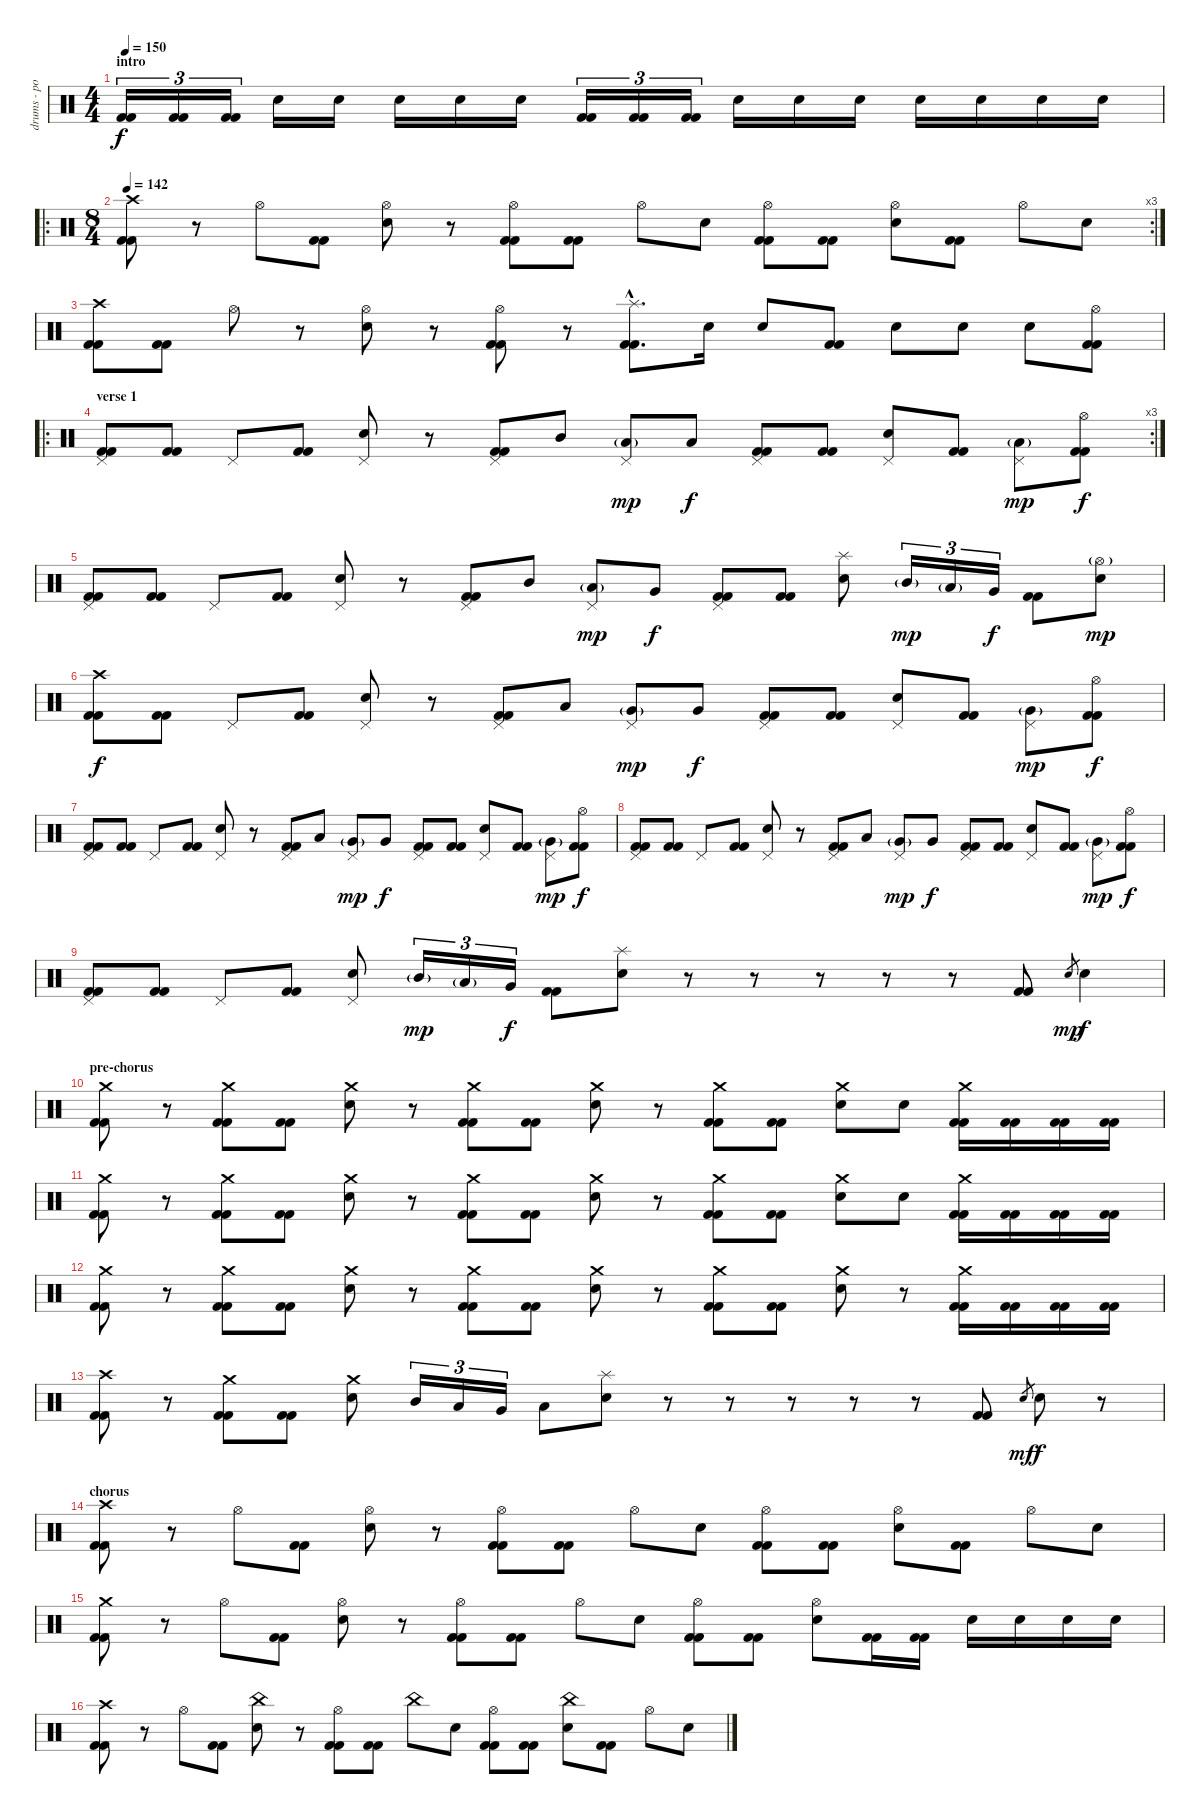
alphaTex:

\track ("drums - portnoy" "drums - po") {instrument percussion}
\staff {score}
\articulation defaults
\ts (4 4)
\section ("" "intro")
\tempo 150
\tempo 130
\tempo 150
\clef neutral
\ks c
("Kick (hit) 2" "Kick (hit) 2").16{tu (3 2) dy f} ("Kick (hit) 2" "Kick (hit) 2").16{tu (3 2)} ("Kick (hit) 2" "Kick (hit) 2").16{tu (3 2)} "Electric Snare (hit)".16 "Electric Snare (hit)".16 "Electric Snare (hit)".16 "Electric Snare (hit)".16 "Electric Snare (hit)".16 ("Kick (hit) 2" "Kick (hit) 2").16{tu (3 2)} ("Kick (hit) 2" "Kick (hit) 2").16{tu (3 2)} ("Kick (hit) 2" "Kick (hit) 2").16{tu (3 2)} "Electric Snare (hit)".16 "Electric Snare (hit)".16 "Electric Snare (hit)".16 "Electric Snare (hit)".16 "Electric Snare (hit)".16 "Electric Snare (hit)".16 "Electric Snare (hit)".16 |
\ro
\rc 3
\ts (8 4)
\tempo 142
("Crash high (hit)" "Kick (hit) 2" "Kick (hit) 2").8 r.8 "Hi-Hat (open)".8 ("Kick (hit) 2" "Kick (hit) 2").8 ("Hi-Hat (open)" "Electric Snare (hit)").8 r.8 ("Hi-Hat (open)" "Kick (hit) 2" "Kick (hit) 2").8 ("Kick (hit) 2" "Kick (hit) 2").8 "Hi-Hat (open)".8 "Electric Snare (hit)".8 ("Hi-Hat (open)" "Kick (hit) 2" "Kick (hit) 2").8 ("Kick (hit) 2" "Kick (hit) 2").8 ("Hi-Hat (open)" "Electric Snare (hit)").8 ("Kick (hit) 2" "Kick (hit) 2").8 "Hi-Hat (open)".8 "Electric Snare (hit)".8 |
("Crash high (hit)" "Kick (hit) 2" "Kick (hit) 2").8 ("Kick (hit) 2" "Kick (hit) 2").8 "Hi-Hat (open)".8 r.8 ("Hi-Hat (open)" "Electric Snare (hit)").8 r.8 ("Hi-Hat (open)" "Kick (hit) 2" "Kick (hit) 2").8 r.8 ("Splash (hit)"{hac} "Kick (hit) 2"{hac} "Kick (hit) 2"{hac}).8{d} "Electric Snare (hit)".16 "Electric Snare (hit)".8 ("Kick (hit) 2" "Kick (hit) 2").8 "Electric Snare (hit)".8 "Electric Snare (hit)".8 "Electric Snare (hit)".8 ("Hi-Hat (open)" "Kick (hit) 2" "Kick (hit) 2").8 |
\ro
\rc 3
\section ("" "verse 1")
("Pedal Hi-Hat (hit)" "Kick (hit) 2" "Kick (hit) 2").8 ("Kick (hit) 2" "Kick (hit) 2").8 "Pedal Hi-Hat (hit)".8 ("Kick (hit) 2" "Kick (hit) 2").8 ("Pedal Hi-Hat (hit)" "Electric Snare (hit)").8 r.8 ("Pedal Hi-Hat (hit)" "Kick (hit) 2" "Kick (hit) 2").8 "Mid Tom (hit)".8 ("Pedal Hi-Hat (hit)" "Low Tom (hit)"{g}).8{dy mp} "Low Tom (hit)".8{dy f} ("Pedal Hi-Hat (hit)" "Kick (hit) 2" "Kick (hit) 2").8 ("Kick (hit) 2" "Kick (hit) 2").8 ("Pedal Hi-Hat (hit)" "Electric Snare (hit)").8 ("Kick (hit) 2" "Kick (hit) 2").8 ("Pedal Hi-Hat (hit)" "Low Tom (hit)"{g}).8{dy mp} ("Hi-Hat (open)" "Kick (hit) 2" "Kick (hit) 2").8{dy f} |
("Pedal Hi-Hat (hit)" "Kick (hit) 2" "Kick (hit) 2").8 ("Kick (hit) 2" "Kick (hit) 2").8 "Pedal Hi-Hat (hit)".8 ("Kick (hit) 2" "Kick (hit) 2").8 ("Pedal Hi-Hat (hit)" "Electric Snare (hit)").8 r.8 ("Pedal Hi-Hat (hit)" "Kick (hit) 2" "Kick (hit) 2").8 "Mid Tom (hit)".8 ("Pedal Hi-Hat (hit)" "Low Tom (hit)"{g}).8{dy mp} "Very Low Tom (hit)".8{dy f} ("Pedal Hi-Hat (hit)" "Kick (hit) 2" "Kick (hit) 2").8 ("Kick (hit) 2" "Kick (hit) 2").8 ("Splash (hit)" "Electric Snare (hit)").8 "Mid Tom (hit)"{g}.16{tu (3 2) dy mp} "Low Tom (hit)"{g}.16{tu (3 2)} "Very Low Tom (hit)".16{tu (3 2) dy f} ("Kick (hit) 2" "Kick (hit) 2").8 ("Hi-Hat (open)"{g} "Electric Snare (hit)").8{dy mp} |
("Crash high (hit)" "Kick (hit) 2" "Kick (hit) 2").8{dy f} ("Kick (hit) 2" "Kick (hit) 2").8 "Pedal Hi-Hat (hit)".8 ("Kick (hit) 2" "Kick (hit) 2").8 ("Pedal Hi-Hat (hit)" "Electric Snare (hit)").8 r.8 ("Pedal Hi-Hat (hit)" "Kick (hit) 2" "Kick (hit) 2").8 "Low Tom (hit)".8 ("Pedal Hi-Hat (hit)" "Very Low Tom (hit)"{g}).8{dy mp} "Very Low Tom (hit)".8{dy f} ("Pedal Hi-Hat (hit)" "Kick (hit) 2" "Kick (hit) 2").8 ("Kick (hit) 2" "Kick (hit) 2").8 ("Pedal Hi-Hat (hit)" "Electric Snare (hit)").8 ("Kick (hit) 2" "Kick (hit) 2").8 ("Pedal Hi-Hat (hit)" "Very Low Tom (hit)"{g}).8{dy mp} ("Hi-Hat (open)" "Kick (hit) 2" "Kick (hit) 2").8{dy f} |
("Pedal Hi-Hat (hit)" "Kick (hit) 2" "Kick (hit) 2").8 ("Kick (hit) 2" "Kick (hit) 2").8 "Pedal Hi-Hat (hit)".8 ("Kick (hit) 2" "Kick (hit) 2").8 ("Pedal Hi-Hat (hit)" "Electric Snare (hit)").8 r.8 ("Pedal Hi-Hat (hit)" "Kick (hit) 2" "Kick (hit) 2").8 "Low Tom (hit)".8 ("Pedal Hi-Hat (hit)" "Very Low Tom (hit)"{g}).8{dy mp} "Very Low Tom (hit)".8{dy f} ("Pedal Hi-Hat (hit)" "Kick (hit) 2" "Kick (hit) 2").8 ("Kick (hit) 2" "Kick (hit) 2").8 ("Pedal Hi-Hat (hit)" "Electric Snare (hit)").8 ("Kick (hit) 2" "Kick (hit) 2").8 ("Pedal Hi-Hat (hit)" "Very Low Tom (hit)"{g}).8{dy mp} ("Hi-Hat (open)" "Kick (hit) 2" "Kick (hit) 2").8{dy f} |
("Pedal Hi-Hat (hit)" "Kick (hit) 2" "Kick (hit) 2").8 ("Kick (hit) 2" "Kick (hit) 2").8 "Pedal Hi-Hat (hit)".8 ("Kick (hit) 2" "Kick (hit) 2").8 ("Pedal Hi-Hat (hit)" "Electric Snare (hit)").8 r.8 ("Pedal Hi-Hat (hit)" "Kick (hit) 2" "Kick (hit) 2").8 "Low Tom (hit)".8 ("Pedal Hi-Hat (hit)" "Very Low Tom (hit)"{g}).8{dy mp} "Very Low Tom (hit)".8{dy f} ("Pedal Hi-Hat (hit)" "Kick (hit) 2" "Kick (hit) 2").8 ("Kick (hit) 2" "Kick (hit) 2").8 ("Pedal Hi-Hat (hit)" "Electric Snare (hit)").8 ("Kick (hit) 2" "Kick (hit) 2").8 ("Pedal Hi-Hat (hit)" "Very Low Tom (hit)"{g}).8{dy mp} ("Hi-Hat (open)" "Kick (hit) 2" "Kick (hit) 2").8{dy f} |
("Pedal Hi-Hat (hit)" "Kick (hit) 2" "Kick (hit) 2").8 ("Kick (hit) 2" "Kick (hit) 2").8 "Pedal Hi-Hat (hit)".8 ("Kick (hit) 2" "Kick (hit) 2").8 ("Pedal Hi-Hat (hit)" "Electric Snare (hit)").8 "Mid Tom (hit)"{g}.16{tu (3 2) dy mp} "Low Tom (hit)"{g}.16{tu (3 2)} "Very Low Tom (hit)".16{tu (3 2) dy f} ("Kick (hit) 2" "Kick (hit) 2").8 ("Splash (hit)" "Electric Snare (hit)").8 r.8 r.8 r.8 r.8 r.8 ("Kick (hit) 2" "Kick (hit) 2").8 "Electric Snare (hit)".8{gr dy mp} "Electric Snare (hit)".4{dy f} |
\section ("" "pre-chorus")
("Crash medium (hit)" "Kick (hit) 2" "Kick (hit) 2").8 r.8 ("Crash medium (hit)" "Kick (hit) 2" "Kick (hit) 2").8 ("Kick (hit) 2" "Kick (hit) 2").8 ("Crash medium (hit)" "Electric Snare (hit)").8 r.8 ("Crash medium (hit)" "Kick (hit) 2" "Kick (hit) 2").8 ("Kick (hit) 2" "Kick (hit) 2").8 ("Crash medium (hit)" "Electric Snare (hit)").8 r.8 ("Crash medium (hit)" "Kick (hit) 2" "Kick (hit) 2").8 ("Kick (hit) 2" "Kick (hit) 2").8 ("Crash medium (hit)" "Electric Snare (hit)").8 "Electric Snare (hit)".8 ("Crash medium (hit)" "Kick (hit) 2" "Kick (hit) 2").16 ("Kick (hit) 2" "Kick (hit) 2").16 ("Kick (hit) 2" "Kick (hit) 2").16 ("Kick (hit) 2" "Kick (hit) 2").16 |
("Crash medium (hit)" "Kick (hit) 2" "Kick (hit) 2").8 r.8 ("Crash medium (hit)" "Kick (hit) 2" "Kick (hit) 2").8 ("Kick (hit) 2" "Kick (hit) 2").8 ("Crash medium (hit)" "Electric Snare (hit)").8 r.8 ("Crash medium (hit)" "Kick (hit) 2" "Kick (hit) 2").8 ("Kick (hit) 2" "Kick (hit) 2").8 ("Crash medium (hit)" "Electric Snare (hit)").8 r.8 ("Crash medium (hit)" "Kick (hit) 2" "Kick (hit) 2").8 ("Kick (hit) 2" "Kick (hit) 2").8 ("Crash medium (hit)" "Electric Snare (hit)").8 "Electric Snare (hit)".8 ("Crash medium (hit)" "Kick (hit) 2" "Kick (hit) 2").16 ("Kick (hit) 2" "Kick (hit) 2").16 ("Kick (hit) 2" "Kick (hit) 2").16 ("Kick (hit) 2" "Kick (hit) 2").16 |
("Crash medium (hit)" "Kick (hit) 2" "Kick (hit) 2").8 r.8 ("Crash medium (hit)" "Kick (hit) 2" "Kick (hit) 2").8 ("Kick (hit) 2" "Kick (hit) 2").8 ("Crash medium (hit)" "Electric Snare (hit)").8 r.8 ("Crash medium (hit)" "Kick (hit) 2" "Kick (hit) 2").8 ("Kick (hit) 2" "Kick (hit) 2").8 ("Crash medium (hit)" "Electric Snare (hit)").8 r.8 ("Crash medium (hit)" "Kick (hit) 2" "Kick (hit) 2").8 ("Kick (hit) 2" "Kick (hit) 2").8 ("Crash medium (hit)" "Electric Snare (hit)").8 r.8 ("Crash medium (hit)" "Kick (hit) 2" "Kick (hit) 2").16 ("Kick (hit) 2" "Kick (hit) 2").16 ("Kick (hit) 2" "Kick (hit) 2").16 ("Kick (hit) 2" "Kick (hit) 2").16 |
("Crash high (hit)" "Kick (hit) 2" "Kick (hit) 2").8 r.8 ("Crash medium (hit)" "Kick (hit) 2" "Kick (hit) 2").8 ("Kick (hit) 2" "Kick (hit) 2").8 ("Crash medium (hit)" "Electric Snare (hit)").8 "Mid Tom (hit)".16{tu (3 2)} "Low Tom (hit)".16{tu (3 2)} "Very Low Tom (hit)".16{tu (3 2)} "Low Floor Tom (hit)".8 ("Splash (hit)" "Electric Snare (hit)").8 r.8 r.8 r.8 r.8 r.8 ("Kick (hit) 2" "Kick (hit) 2").8 "Electric Snare (hit)".8{gr dy mf} "Electric Snare (hit)".8{dy f} r.8 |
\section ("" "chorus")
("Crash high (hit)" "Kick (hit) 2" "Kick (hit) 2").8 r.8 "Hi-Hat (open)".8 ("Kick (hit) 2" "Kick (hit) 2").8 ("Hi-Hat (open)" "Electric Snare (hit)").8 r.8 ("Hi-Hat (open)" "Kick (hit) 2" "Kick (hit) 2").8 ("Kick (hit) 2" "Kick (hit) 2").8 "Hi-Hat (open)".8 "Electric Snare (hit)".8 ("Hi-Hat (open)" "Kick (hit) 2" "Kick (hit) 2").8 ("Kick (hit) 2" "Kick (hit) 2").8 ("Hi-Hat (open)" "Electric Snare (hit)").8 ("Kick (hit) 2" "Kick (hit) 2").8 "Hi-Hat (open)".8 "Electric Snare (hit)".8 |
("Crash medium (hit)" "Kick (hit) 2" "Kick (hit) 2").8 r.8 "Hi-Hat (open)".8 ("Kick (hit) 2" "Kick (hit) 2").8 ("Hi-Hat (open)" "Electric Snare (hit)").8 r.8 ("Hi-Hat (open)" "Kick (hit) 2" "Kick (hit) 2").8 ("Kick (hit) 2" "Kick (hit) 2").8 "Hi-Hat (open)".8 "Electric Snare (hit)".8 ("Hi-Hat (open)" "Kick (hit) 2" "Kick (hit) 2").8 ("Kick (hit) 2" "Kick (hit) 2").8 ("Hi-Hat (open)" "Electric Snare (hit)").8 ("Kick (hit) 2" "Kick (hit) 2").16 ("Kick (hit) 2" "Kick (hit) 2").16 "Electric Snare (hit)".16 "Electric Snare (hit)".16 "Electric Snare (hit)".16 "Electric Snare (hit)".16 |
("Crash high (hit)" "Kick (hit) 2" "Kick (hit) 2").8 r.8 "Hi-Hat (open)".8 ("Kick (hit) 2" "Kick (hit) 2").8 ("China (hit)" "Electric Snare (hit)").8 r.8 ("Hi-Hat (open)" "Kick (hit) 2" "Kick (hit) 2").8 ("Kick (hit) 2" "Kick (hit) 2").8 "China (hit)".8 "Electric Snare (hit)".8 ("Hi-Hat (open)" "Kick (hit) 2" "Kick (hit) 2").8 ("Kick (hit) 2" "Kick (hit) 2").8 ("China (hit)" "Electric Snare (hit)").8 ("Kick (hit) 2" "Kick (hit) 2").8 "Hi-Hat (open)".8 "Electric Snare (hit)".8
